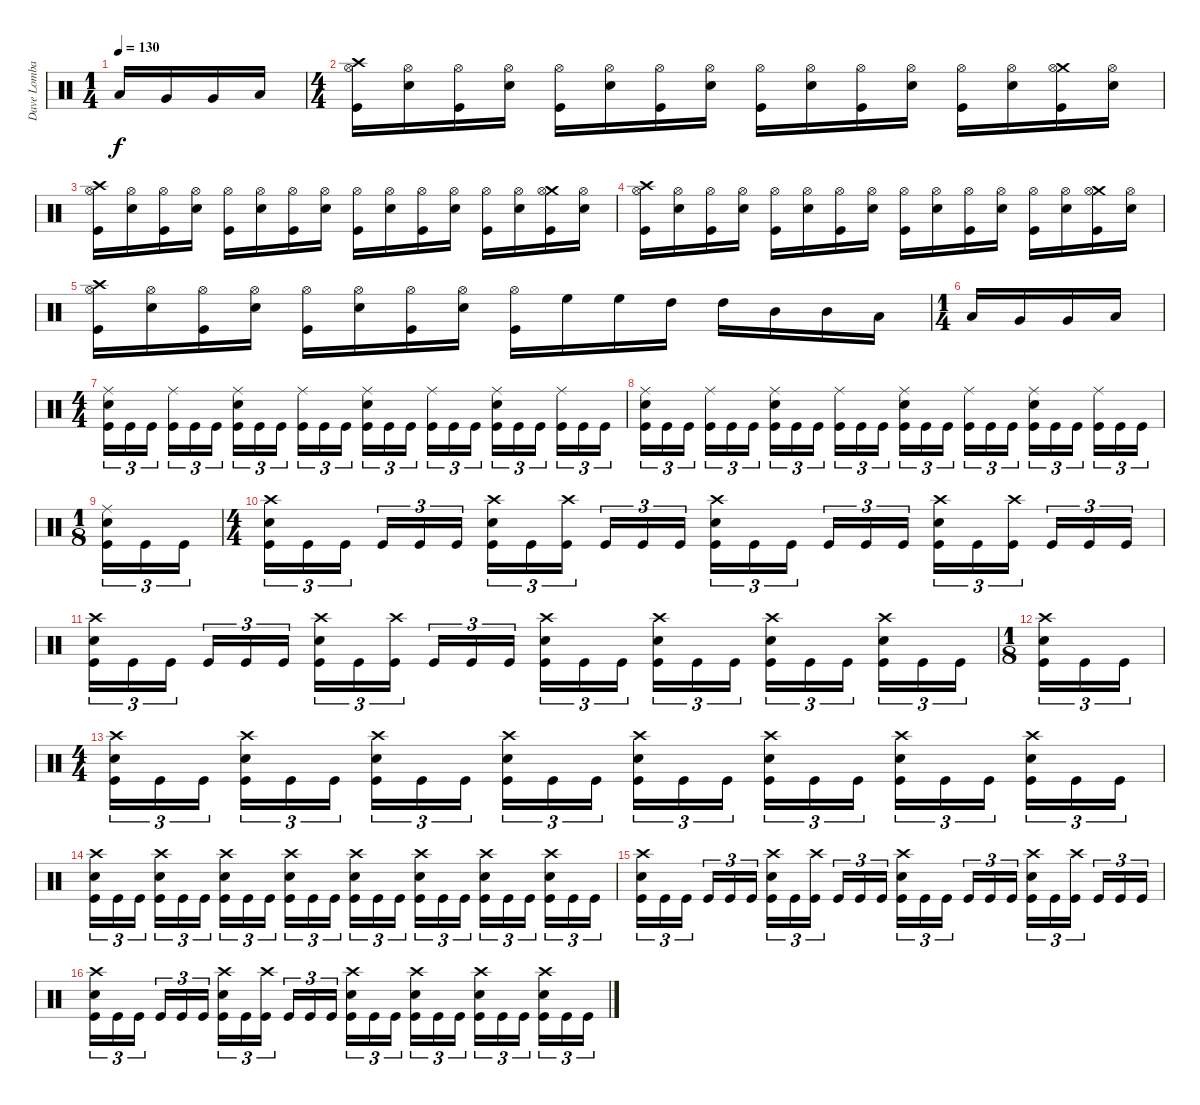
\track ("Dave Lombardo" "Dave Lomba") {instrument percussion}
\staff {score}
\articulation defaults
\ts (1 4)
\tempo 130
\clef neutral
\ks c "Low Tom (hit)".16{dy f} "Very Low Tom (hit)".16 "Very Low Tom (hit)".16 "Low Floor Tom (hit)".16
|
\ts (4 4)
("Crash high (hit)" "Hi-Hat (open)" "Kick (hit)").16 ("Hi-Hat (open)" "Electric Snare (hit)").16 ("Hi-Hat (open)" "Kick (hit)").16 ("Hi-Hat (open)" "Electric Snare (hit)").16 ("Hi-Hat (open)" "Kick (hit)").16 ("Hi-Hat (open)" "Electric Snare (hit)").16 ("Hi-Hat (open)" "Kick (hit)").16 ("Hi-Hat (open)" "Electric Snare (hit)").16 ("Hi-Hat (open)" "Kick (hit)").16 ("Hi-Hat (open)" "Electric Snare (hit)").16 ("Hi-Hat (open)" "Kick (hit)").16 ("Hi-Hat (open)" "Electric Snare (hit)").16 ("Hi-Hat (open)" "Kick (hit)").16 ("Hi-Hat (open)" "Electric Snare (hit)").16 ("Crash medium (hit)" "Hi-Hat (open)" "Kick (hit)").16 ("Hi-Hat (open)" "Electric Snare (hit)").16 |
("Crash high (hit)" "Hi-Hat (open)" "Kick (hit)").16 ("Hi-Hat (open)" "Electric Snare (hit)").16 ("Hi-Hat (open)" "Kick (hit)").16 ("Hi-Hat (open)" "Electric Snare (hit)").16 ("Hi-Hat (open)" "Kick (hit)").16 ("Hi-Hat (open)" "Electric Snare (hit)").16 ("Hi-Hat (open)" "Kick (hit)").16 ("Hi-Hat (open)" "Electric Snare (hit)").16 ("Hi-Hat (open)" "Kick (hit)").16 ("Hi-Hat (open)" "Electric Snare (hit)").16 ("Hi-Hat (open)" "Kick (hit)").16 ("Hi-Hat (open)" "Electric Snare (hit)").16 ("Hi-Hat (open)" "Kick (hit)").16 ("Hi-Hat (open)" "Electric Snare (hit)").16 ("Crash medium (hit)" "Hi-Hat (open)" "Kick (hit)").16 ("Hi-Hat (open)" "Electric Snare (hit)").16 |
("Crash high (hit)" "Hi-Hat (open)" "Kick (hit)").16 ("Hi-Hat (open)" "Electric Snare (hit)").16 ("Hi-Hat (open)" "Kick (hit)").16 ("Hi-Hat (open)" "Electric Snare (hit)").16 ("Hi-Hat (open)" "Kick (hit)").16 ("Hi-Hat (open)" "Electric Snare (hit)").16 ("Hi-Hat (open)" "Kick (hit)").16 ("Hi-Hat (open)" "Electric Snare (hit)").16 ("Hi-Hat (open)" "Kick (hit)").16 ("Hi-Hat (open)" "Electric Snare (hit)").16 ("Hi-Hat (open)" "Kick (hit)").16 ("Hi-Hat (open)" "Electric Snare (hit)").16 ("Hi-Hat (open)" "Kick (hit)").16 ("Hi-Hat (open)" "Electric Snare (hit)").16 ("Crash medium (hit)" "Hi-Hat (open)" "Kick (hit)").16 ("Hi-Hat (open)" "Electric Snare (hit)").16 |
("Crash high (hit)" "Hi-Hat (open)" "Kick (hit)").16 ("Hi-Hat (open)" "Electric Snare (hit)").16 ("Hi-Hat (open)" "Kick (hit)").16 ("Hi-Hat (open)" "Electric Snare (hit)").16 ("Hi-Hat (open)" "Kick (hit)").16 ("Hi-Hat (open)" "Electric Snare (hit)").16 ("Hi-Hat (open)" "Kick (hit)").16 ("Hi-Hat (open)" "Electric Snare (hit)").16 ("Hi-Hat (open)" "Kick (hit)").16 "High Floor Tom (hit)".16 "High Floor Tom (hit)".16 "High Tom (hit)".16 "High Tom (hit)".16 "Mid Tom (hit)".16 "Mid Tom (hit)".16 "Low Tom (hit)".16 |
\ts (1 4)
"Low Tom (hit)".16 "Very Low Tom (hit)".16 "Very Low Tom (hit)".16 "Low Floor Tom (hit)".16 |
\ts (4 4)
("Ride (middle)" "Electric Snare (hit)" "Kick (hit)").16{tu (3 2)} "Kick (hit)".16{tu (3 2)} "Kick (hit)".16{tu (3 2)} ("Ride (middle)" "Kick (hit)").16{tu (3 2)} "Kick (hit)".16{tu (3 2)} "Kick (hit)".16{tu (3 2)} ("Ride (middle)" "Electric Snare (hit)" "Kick (hit)").16{tu (3 2)} "Kick (hit)".16{tu (3 2)} "Kick (hit)".16{tu (3 2)} ("Ride (middle)" "Kick (hit)").16{tu (3 2)} "Kick (hit)".16{tu (3 2)} "Kick (hit)".16{tu (3 2)} ("Ride (middle)" "Electric Snare (hit)" "Kick (hit)").16{tu (3 2)} "Kick (hit)".16{tu (3 2)} "Kick (hit)".16{tu (3 2)} ("Ride (middle)" "Kick (hit)").16{tu (3 2)} "Kick (hit)".16{tu (3 2)} "Kick (hit)".16{tu (3 2)} ("Ride (middle)" "Electric Snare (hit)" "Kick (hit)").16{tu (3 2)} "Kick (hit)".16{tu (3 2)} "Kick (hit)".16{tu (3 2)} ("Ride (middle)" "Kick (hit)").16{tu (3 2)} "Kick (hit)".16{tu (3 2)} "Kick (hit)".16{tu (3 2)} |
("Ride (middle)" "Electric Snare (hit)" "Kick (hit)").16{tu (3 2)} "Kick (hit)".16{tu (3 2)} "Kick (hit)".16{tu (3 2)} ("Ride (middle)" "Kick (hit)").16{tu (3 2)} "Kick (hit)".16{tu (3 2)} "Kick (hit)".16{tu (3 2)} ("Ride (middle)" "Electric Snare (hit)" "Kick (hit)").16{tu (3 2)} "Kick (hit)".16{tu (3 2)} "Kick (hit)".16{tu (3 2)} ("Ride (middle)" "Kick (hit)").16{tu (3 2)} "Kick (hit)".16{tu (3 2)} "Kick (hit)".16{tu (3 2)} ("Ride (middle)" "Electric Snare (hit)" "Kick (hit)").16{tu (3 2)} "Kick (hit)".16{tu (3 2)} "Kick (hit)".16{tu (3 2)} ("Ride (middle)" "Kick (hit)").16{tu (3 2)} "Kick (hit)".16{tu (3 2)} "Kick (hit)".16{tu (3 2)} ("Ride (middle)" "Electric Snare (hit)" "Kick (hit)").16{tu (3 2)} "Kick (hit)".16{tu (3 2)} "Kick (hit)".16{tu (3 2)} ("Ride (middle)" "Kick (hit)").16{tu (3 2)} "Kick (hit)".16{tu (3 2)} "Kick (hit)".16{tu (3 2)} |
\ts (1 8)
("Ride (middle)" "Electric Snare (hit)" "Kick (hit)").16{tu (3 2)} "Kick (hit)".16{tu (3 2)} "Kick (hit)".16{tu (3 2)} |
\ts (4 4)
("Crash high (hit)" "Electric Snare (hit)" "Kick (hit)").16{tu (3 2)} "Kick (hit)".16{tu (3 2)} "Kick (hit)".16{tu (3 2)} "Kick (hit)".16{tu (3 2)} "Kick (hit)".16{tu (3 2)} "Kick (hit)".16{tu (3 2)} ("Crash high (hit)" "Electric Snare (hit)" "Kick (hit)").16{tu (3 2)} "Kick (hit)".16{tu (3 2)} ("Crash high (hit)" "Kick (hit)").16{tu (3 2)} "Kick (hit)".16{tu (3 2)} "Kick (hit)".16{tu (3 2)} "Kick (hit)".16{tu (3 2)} ("Crash high (hit)" "Electric Snare (hit)" "Kick (hit)").16{tu (3 2)} "Kick (hit)".16{tu (3 2)} "Kick (hit)".16{tu (3 2)} "Kick (hit)".16{tu (3 2)} "Kick (hit)".16{tu (3 2)} "Kick (hit)".16{tu (3 2)} ("Crash high (hit)" "Electric Snare (hit)" "Kick (hit)").16{tu (3 2)} "Kick (hit)".16{tu (3 2)} ("Crash high (hit)" "Kick (hit)").16{tu (3 2)} "Kick (hit)".16{tu (3 2)} "Kick (hit)".16{tu (3 2)} "Kick (hit)".16{tu (3 2)} |
("Crash high (hit)" "Electric Snare (hit)" "Kick (hit)").16{tu (3 2)} "Kick (hit)".16{tu (3 2)} "Kick (hit)".16{tu (3 2)} "Kick (hit)".16{tu (3 2)} "Kick (hit)".16{tu (3 2)} "Kick (hit)".16{tu (3 2)} ("Crash high (hit)" "Electric Snare (hit)" "Kick (hit)").16{tu (3 2)} "Kick (hit)".16{tu (3 2)} ("Crash high (hit)" "Kick (hit)").16{tu (3 2)} "Kick (hit)".16{tu (3 2)} "Kick (hit)".16{tu (3 2)} "Kick (hit)".16{tu (3 2)} ("Crash high (hit)" "Electric Snare (hit)" "Kick (hit)").16{tu (3 2)} "Kick (hit)".16{tu (3 2)} "Kick (hit)".16{tu (3 2)} ("Crash high (hit)" "Electric Snare (hit)" "Kick (hit)").16{tu (3 2)} "Kick (hit)".16{tu (3 2)} "Kick (hit)".16{tu (3 2)} ("Crash high (hit)" "Electric Snare (hit)" "Kick (hit)").16{tu (3 2)} "Kick (hit)".16{tu (3 2)} "Kick (hit)".16{tu (3 2)} ("Crash high (hit)" "Electric Snare (hit)" "Kick (hit)").16{tu (3 2)} "Kick (hit)".16{tu (3 2)} "Kick (hit)".16{tu (3 2)} |
\ts (1 8)
("Crash high (hit)" "Electric Snare (hit)" "Kick (hit)").16{tu (3 2)} "Kick (hit)".16{tu (3 2)} "Kick (hit)".16{tu (3 2)} |
\ts (4 4)
("Crash high (hit)" "Electric Snare (hit)" "Kick (hit)").16{tu (3 2)} "Kick (hit)".16{tu (3 2)} "Kick (hit)".16{tu (3 2)} ("Crash high (hit)" "Electric Snare (hit)" "Kick (hit)").16{tu (3 2)} "Kick (hit)".16{tu (3 2)} "Kick (hit)".16{tu (3 2)} ("Crash high (hit)" "Electric Snare (hit)" "Kick (hit)").16{tu (3 2)} "Kick (hit)".16{tu (3 2)} "Kick (hit)".16{tu (3 2)} ("Crash high (hit)" "Electric Snare (hit)" "Kick (hit)").16{tu (3 2)} "Kick (hit)".16{tu (3 2)} "Kick (hit)".16{tu (3 2)} ("Crash high (hit)" "Electric Snare (hit)" "Kick (hit)").16{tu (3 2)} "Kick (hit)".16{tu (3 2)} "Kick (hit)".16{tu (3 2)} ("Crash high (hit)" "Electric Snare (hit)" "Kick (hit)").16{tu (3 2)} "Kick (hit)".16{tu (3 2)} "Kick (hit)".16{tu (3 2)} ("Crash high (hit)" "Electric Snare (hit)" "Kick (hit)").16{tu (3 2)} "Kick (hit)".16{tu (3 2)} "Kick (hit)".16{tu (3 2)} ("Crash high (hit)" "Electric Snare (hit)" "Kick (hit)").16{tu (3 2)} "Kick (hit)".16{tu (3 2)} "Kick (hit)".16{tu (3 2)} |
("Crash high (hit)" "Electric Snare (hit)" "Kick (hit)").16{tu (3 2)} "Kick (hit)".16{tu (3 2)} "Kick (hit)".16{tu (3 2)} ("Crash high (hit)" "Electric Snare (hit)" "Kick (hit)").16{tu (3 2)} "Kick (hit)".16{tu (3 2)} "Kick (hit)".16{tu (3 2)} ("Crash high (hit)" "Electric Snare (hit)" "Kick (hit)").16{tu (3 2)} "Kick (hit)".16{tu (3 2)} "Kick (hit)".16{tu (3 2)} ("Crash high (hit)" "Electric Snare (hit)" "Kick (hit)").16{tu (3 2)} "Kick (hit)".16{tu (3 2)} "Kick (hit)".16{tu (3 2)} ("Crash high (hit)" "Electric Snare (hit)" "Kick (hit)").16{tu (3 2)} "Kick (hit)".16{tu (3 2)} "Kick (hit)".16{tu (3 2)} ("Crash high (hit)" "Electric Snare (hit)" "Kick (hit)").16{tu (3 2)} "Kick (hit)".16{tu (3 2)} "Kick (hit)".16{tu (3 2)} ("Crash high (hit)" "Electric Snare (hit)" "Kick (hit)").16{tu (3 2)} "Kick (hit)".16{tu (3 2)} "Kick (hit)".16{tu (3 2)} ("Crash high (hit)" "Electric Snare (hit)" "Kick (hit)").16{tu (3 2)} "Kick (hit)".16{tu (3 2)} "Kick (hit)".16{tu (3 2)} |
("Crash high (hit)" "Electric Snare (hit)" "Kick (hit)").16{tu (3 2)} "Kick (hit)".16{tu (3 2)} "Kick (hit)".16{tu (3 2)} "Kick (hit)".16{tu (3 2)} "Kick (hit)".16{tu (3 2)} "Kick (hit)".16{tu (3 2)} ("Crash high (hit)" "Electric Snare (hit)" "Kick (hit)").16{tu (3 2)} "Kick (hit)".16{tu (3 2)} ("Crash high (hit)" "Kick (hit)").16{tu (3 2)} "Kick (hit)".16{tu (3 2)} "Kick (hit)".16{tu (3 2)} "Kick (hit)".16{tu (3 2)} ("Crash high (hit)" "Electric Snare (hit)" "Kick (hit)").16{tu (3 2)} "Kick (hit)".16{tu (3 2)} "Kick (hit)".16{tu (3 2)} "Kick (hit)".16{tu (3 2)} "Kick (hit)".16{tu (3 2)} "Kick (hit)".16{tu (3 2)} ("Crash high (hit)" "Electric Snare (hit)" "Kick (hit)").16{tu (3 2)} "Kick (hit)".16{tu (3 2)} ("Crash high (hit)" "Kick (hit)").16{tu (3 2)} "Kick (hit)".16{tu (3 2)} "Kick (hit)".16{tu (3 2)} "Kick (hit)".16{tu (3 2)} |
("Crash high (hit)" "Electric Snare (hit)" "Kick (hit)").16{tu (3 2)} "Kick (hit)".16{tu (3 2)} "Kick (hit)".16{tu (3 2)} "Kick (hit)".16{tu (3 2)} "Kick (hit)".16{tu (3 2)} "Kick (hit)".16{tu (3 2)} ("Crash high (hit)" "Electric Snare (hit)" "Kick (hit)").16{tu (3 2)} "Kick (hit)".16{tu (3 2)} ("Crash high (hit)" "Kick (hit)").16{tu (3 2)} "Kick (hit)".16{tu (3 2)} "Kick (hit)".16{tu (3 2)} "Kick (hit)".16{tu (3 2)} ("Crash high (hit)" "Electric Snare (hit)" "Kick (hit)").16{tu (3 2)} "Kick (hit)".16{tu (3 2)} "Kick (hit)".16{tu (3 2)} ("Crash high (hit)" "Electric Snare (hit)" "Kick (hit)").16{tu (3 2)} "Kick (hit)".16{tu (3 2)} "Kick (hit)".16{tu (3 2)} ("Crash high (hit)" "Electric Snare (hit)" "Kick (hit)").16{tu (3 2)} "Kick (hit)".16{tu (3 2)} "Kick (hit)".16{tu (3 2)} ("Crash high (hit)" "Electric Snare (hit)" "Kick (hit)").16{tu (3 2)} "Kick (hit)".16{tu (3 2)} "Kick (hit)".16{tu (3 2)}
